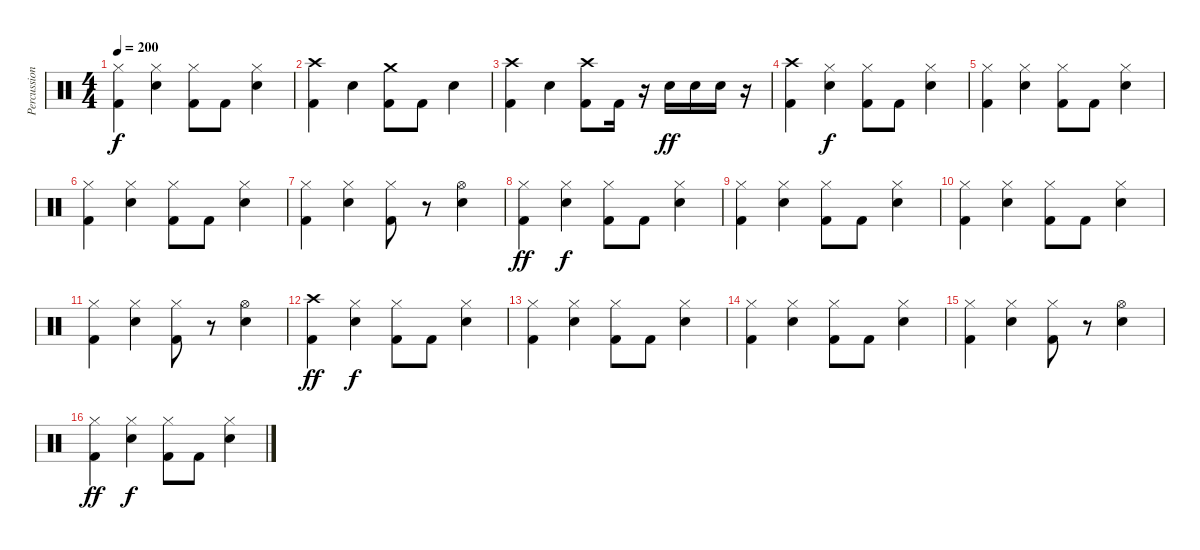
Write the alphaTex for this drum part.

\track ("Percussions 1" "Percussion") {instrument percussion}
\staff {score}
\articulation defaults
\ts (4 4)
\tempo 200
\clef neutral
\ks c
("Hi-Hat (closed)" "Kick (hit) 2").4{dy f} ("Hi-Hat (closed)" "Snare (hit) 2").4 ("Hi-Hat (closed)" "Kick (hit) 2").8 "Kick (hit) 2".8 ("Hi-Hat (closed)" "Snare (hit) 2").4 |
("Crash high (hit)" "Kick (hit) 2").4 "Snare (hit) 2".4 ("Crash medium (hit)" "Kick (hit) 2").8 "Kick (hit) 2".8 "Snare (hit) 2".4 |
("Crash high (hit)" "Kick (hit) 2").4 "Snare (hit) 2".4 ("Crash high (hit)" "Kick (hit) 2").8 "Kick (hit) 2".16 r.16 "Snare (hit) 2".16{dy ff} "Snare (hit) 2".16 "Snare (hit) 2".16 r.16 |
("Crash high (hit)" "Kick (hit) 2").4 ("Hi-Hat (closed)" "Snare (hit) 2").4{dy f} ("Hi-Hat (closed)" "Kick (hit) 2").8 "Kick (hit) 2".8 ("Hi-Hat (closed)" "Snare (hit) 2").4 |
("Hi-Hat (closed)" "Kick (hit) 2").4 ("Hi-Hat (closed)" "Snare (hit) 2").4 ("Hi-Hat (closed)" "Kick (hit) 2").8 "Kick (hit) 2".8 ("Hi-Hat (closed)" "Snare (hit) 2").4 |
("Hi-Hat (closed)" "Kick (hit) 2").4 ("Hi-Hat (closed)" "Snare (hit) 2").4 ("Hi-Hat (closed)" "Kick (hit) 2").8 "Kick (hit) 2".8 ("Hi-Hat (closed)" "Snare (hit) 2").4 |
("Hi-Hat (closed)" "Kick (hit) 2").4 ("Hi-Hat (closed)" "Snare (hit) 2").4 ("Hi-Hat (closed)" "Kick (hit) 2").8 r.8 ("Hi-Hat (open)" "Snare (hit) 2").4 |
("Hi-Hat (closed)" "Kick (hit) 2").4{dy ff} ("Hi-Hat (closed)" "Snare (hit) 2").4{dy f} ("Hi-Hat (closed)" "Kick (hit) 2").8 "Kick (hit) 2".8 ("Hi-Hat (closed)" "Snare (hit) 2").4 |
("Hi-Hat (closed)" "Kick (hit) 2").4 ("Hi-Hat (closed)" "Snare (hit) 2").4 ("Hi-Hat (closed)" "Kick (hit) 2").8 "Kick (hit) 2".8 ("Hi-Hat (closed)" "Snare (hit) 2").4 |
("Hi-Hat (closed)" "Kick (hit) 2").4 ("Hi-Hat (closed)" "Snare (hit) 2").4 ("Hi-Hat (closed)" "Kick (hit) 2").8 "Kick (hit) 2".8 ("Hi-Hat (closed)" "Snare (hit) 2").4 |
("Hi-Hat (closed)" "Kick (hit) 2").4 ("Hi-Hat (closed)" "Snare (hit) 2").4 ("Hi-Hat (closed)" "Kick (hit) 2").8 r.8 ("Hi-Hat (open)" "Snare (hit) 2").4 |
("Crash high (hit)" "Kick (hit) 2").4{dy ff} ("Hi-Hat (closed)" "Snare (hit) 2").4{dy f} ("Hi-Hat (closed)" "Kick (hit) 2").8 "Kick (hit) 2".8 ("Hi-Hat (closed)" "Snare (hit) 2").4 |
("Hi-Hat (closed)" "Kick (hit) 2").4 ("Hi-Hat (closed)" "Snare (hit) 2").4 ("Hi-Hat (closed)" "Kick (hit) 2").8 "Kick (hit) 2".8 ("Hi-Hat (closed)" "Snare (hit) 2").4 |
("Hi-Hat (closed)" "Kick (hit) 2").4 ("Hi-Hat (closed)" "Snare (hit) 2").4 ("Hi-Hat (closed)" "Kick (hit) 2").8 "Kick (hit) 2".8 ("Hi-Hat (closed)" "Snare (hit) 2").4 |
("Hi-Hat (closed)" "Kick (hit) 2").4 ("Hi-Hat (closed)" "Snare (hit) 2").4 ("Hi-Hat (closed)" "Kick (hit) 2").8 r.8 ("Hi-Hat (open)" "Snare (hit) 2").4 |
("Hi-Hat (closed)" "Kick (hit) 2").4{dy ff} ("Hi-Hat (closed)" "Snare (hit) 2").4{dy f} ("Hi-Hat (closed)" "Kick (hit) 2").8 "Kick (hit) 2".8 ("Hi-Hat (closed)" "Snare (hit) 2").4
